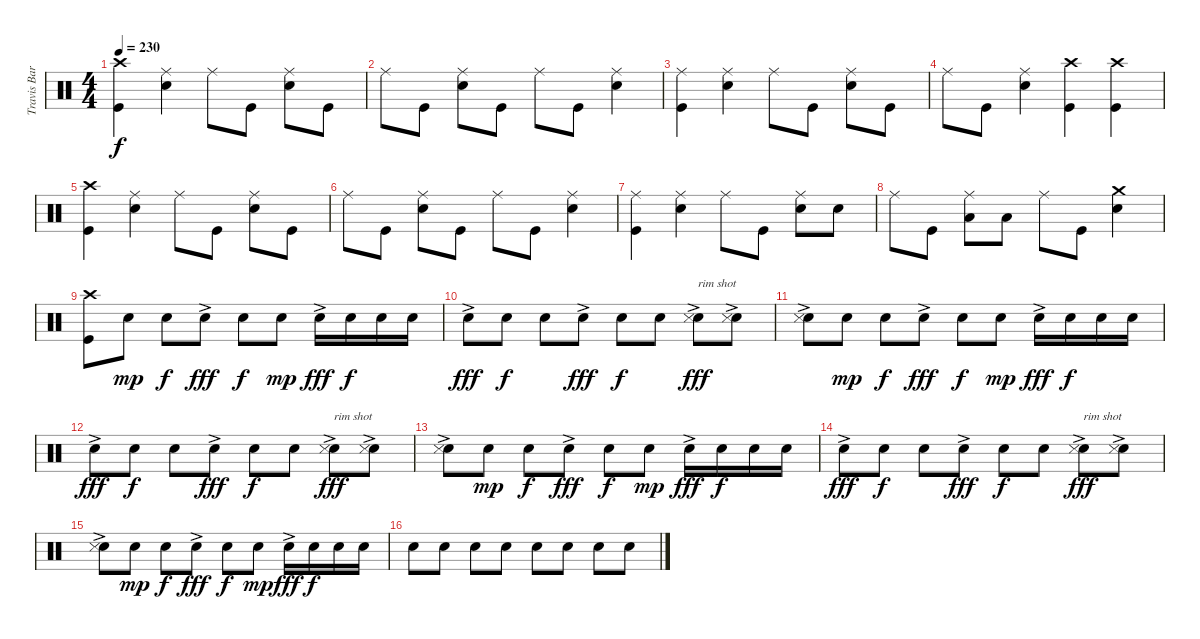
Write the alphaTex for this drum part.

\track ("Travis Barker" "Travis Bar") {instrument percussion}
\staff {score}
\articulation defaults
\ts (4 4)
\tempo 230
\clef neutral
\ks c
("Crash high (hit)" "Kick (hit)").4{dy f} ("Ride (middle)" "Electric Snare (hit)").4 "Ride (middle)".8 "Kick (hit)".8 ("Ride (middle)" "Electric Snare (hit)").8 "Kick (hit)".8 |
"Ride (middle)".8 "Kick (hit)".8 ("Ride (middle)" "Electric Snare (hit)").8 "Kick (hit)".8 "Ride (middle)".8 "Kick (hit)".8 ("Ride (middle)" "Electric Snare (hit)").4 |
("Ride (middle)" "Kick (hit)").4 ("Ride (middle)" "Electric Snare (hit)").4 "Ride (middle)".8 "Kick (hit)".8 ("Ride (middle)" "Electric Snare (hit)").8 "Kick (hit)".8 |
"Ride (middle)".8 "Kick (hit)".8 ("Ride (middle)" "Electric Snare (hit)").4 ("Crash high (hit)" "Kick (hit)").4 ("Crash high (hit)" "Kick (hit)").4 |
("Crash high (hit)" "Kick (hit)").4 ("Ride (middle)" "Electric Snare (hit)").4 "Ride (middle)".8 "Kick (hit)".8 ("Ride (middle)" "Electric Snare (hit)").8 "Kick (hit)".8 |
"Ride (middle)".8 "Kick (hit)".8 ("Ride (middle)" "Electric Snare (hit)").8 "Kick (hit)".8 "Ride (middle)".8 "Kick (hit)".8 ("Ride (middle)" "Electric Snare (hit)").4 |
("Ride (middle)" "Kick (hit)").4 ("Ride (middle)" "Electric Snare (hit)").4 "Ride (middle)".8 "Kick (hit)".8 ("Ride (middle)" "Electric Snare (hit)").8 "Electric Snare (hit)".8 |
"Ride (middle)".8 "Kick (hit)".8 ("Ride (middle)" "Low Tom (hit)").8 "Low Tom (hit)".8 "Ride (middle)".8 "Kick (hit)".8 ("Crash medium (hit)" "Electric Snare (hit)").4 |
("Crash high (hit)" "Kick (hit)").8 "Electric Snare (hit)".8{dy mp} "Electric Snare (hit)".8{dy f} "Electric Snare (hit)"{ac}.8{dy fff} "Electric Snare (hit)".8{dy f} "Electric Snare (hit)".8{dy mp} "Electric Snare (hit)"{ac}.16{dy fff} "Electric Snare (hit)".16{dy f} "Electric Snare (hit)".16 "Electric Snare (hit)".16 |
"Electric Snare (hit)"{ac}.8{dy fff} "Electric Snare (hit)".8{dy f} "Electric Snare (hit)".8 "Electric Snare (hit)"{ac}.8{dy fff} "Electric Snare (hit)".8{dy f} "Electric Snare (hit)".8 ("Electric Snare (hit)"{ac} "Snare (side stick) 3"{ac}).8{txt "rim shot" dy fff} ("Electric Snare (hit)"{ac} "Snare (side stick) 3"{ac}).8 |
("Electric Snare (hit)"{ac} "Snare (side stick) 3"{ac}).8 "Electric Snare (hit)".8{dy mp} "Electric Snare (hit)".8{dy f} "Electric Snare (hit)"{ac}.8{dy fff} "Electric Snare (hit)".8{dy f} "Electric Snare (hit)".8{dy mp} "Electric Snare (hit)"{ac}.16{dy fff} "Electric Snare (hit)".16{dy f} "Electric Snare (hit)".16 "Electric Snare (hit)".16 |
"Electric Snare (hit)"{ac}.8{dy fff} "Electric Snare (hit)".8{dy f} "Electric Snare (hit)".8 "Electric Snare (hit)"{ac}.8{dy fff} "Electric Snare (hit)".8{dy f} "Electric Snare (hit)".8 ("Electric Snare (hit)"{ac} "Snare (side stick) 3"{ac}).8{txt "rim shot" dy fff} ("Electric Snare (hit)"{ac} "Snare (side stick) 3"{ac}).8 |
("Electric Snare (hit)"{ac} "Snare (side stick) 3"{ac}).8 "Electric Snare (hit)".8{dy mp} "Electric Snare (hit)".8{dy f} "Electric Snare (hit)"{ac}.8{dy fff} "Electric Snare (hit)".8{dy f} "Electric Snare (hit)".8{dy mp} "Electric Snare (hit)"{ac}.16{dy fff} "Electric Snare (hit)".16{dy f} "Electric Snare (hit)".16 "Electric Snare (hit)".16 |
"Electric Snare (hit)"{ac}.8{dy fff} "Electric Snare (hit)".8{dy f} "Electric Snare (hit)".8 "Electric Snare (hit)"{ac}.8{dy fff} "Electric Snare (hit)".8{dy f} "Electric Snare (hit)".8 ("Electric Snare (hit)"{ac} "Snare (side stick) 3"{ac}).8{txt "rim shot" dy fff} ("Electric Snare (hit)"{ac} "Snare (side stick) 3"{ac}).8 |
("Electric Snare (hit)"{ac} "Snare (side stick) 3"{ac}).8 "Electric Snare (hit)".8{dy mp} "Electric Snare (hit)".8{dy f} "Electric Snare (hit)"{ac}.8{dy fff} "Electric Snare (hit)".8{dy f} "Electric Snare (hit)".8{dy mp} "Electric Snare (hit)"{ac}.16{dy fff} "Electric Snare (hit)".16{dy f} "Electric Snare (hit)".16 "Electric Snare (hit)".16 |
"Electric Snare (hit)".8 "Electric Snare (hit)".8 "Electric Snare (hit)".8 "Electric Snare (hit)".8 "Electric Snare (hit)".8 "Electric Snare (hit)".8 "Electric Snare (hit)".8 "Electric Snare (hit)".8
